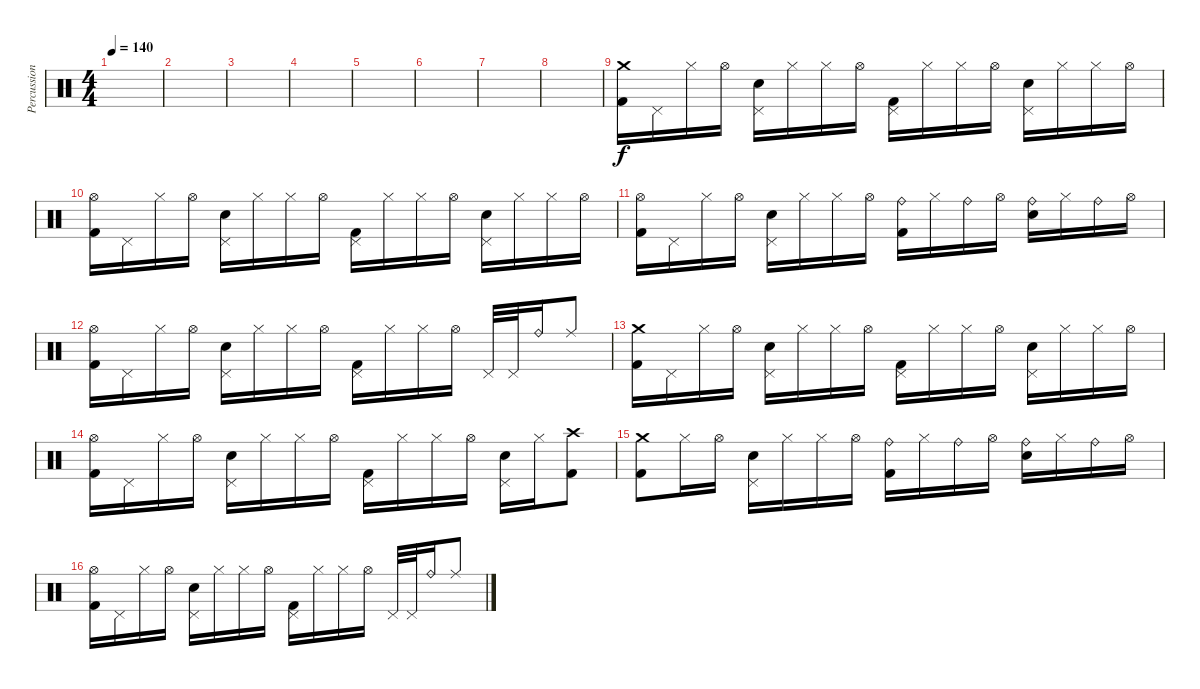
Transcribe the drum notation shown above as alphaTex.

\track ("Percussion" "Percussion") {instrument percussion}
\staff {score}
\articulation defaults
\ts (4 4)
\tempo 140
\clef neutral
\ks c
|
|
|
|
|
|
|
|
("Crash medium (hit)" "Kick (hit) 2").16 "Pedal Hi-Hat (hit)".16 "Hi-Hat (closed)".16 "Hi-Hat (open)".16 ("Pedal Hi-Hat (hit)" "Electric Snare (hit)").16 "Hi-Hat (closed)".16 "Hi-Hat (closed)".16 "Hi-Hat (open)".16 ("Pedal Hi-Hat (hit)" "Kick (hit) 2").16 "Hi-Hat (closed)".16 "Hi-Hat (closed)".16 "Hi-Hat (open)".16 ("Pedal Hi-Hat (hit)" "Electric Snare (hit)").16 "Hi-Hat (closed)".16 "Hi-Hat (closed)".16 "Hi-Hat (open)".16 |
("Hi-Hat (open)" "Kick (hit) 2").16 "Pedal Hi-Hat (hit)".16 "Hi-Hat (closed)".16 "Hi-Hat (open)".16 ("Pedal Hi-Hat (hit)" "Electric Snare (hit)").16 "Hi-Hat (closed)".16 "Hi-Hat (closed)".16 "Hi-Hat (open)".16 ("Pedal Hi-Hat (hit)" "Kick (hit) 2").16 "Hi-Hat (closed)".16 "Hi-Hat (closed)".16 "Hi-Hat (open)".16 ("Pedal Hi-Hat (hit)" "Electric Snare (hit)").16 "Hi-Hat (closed)".16 "Hi-Hat (closed)".16 "Hi-Hat (open)".16 |
("Hi-Hat (open)" "Kick (hit) 2").16 "Pedal Hi-Hat (hit)".16 "Hi-Hat (closed)".16 "Hi-Hat (open)".16 ("Pedal Hi-Hat (hit)" "Electric Snare (hit)").16 "Hi-Hat (closed)".16 "Hi-Hat (closed)".16 "Hi-Hat (open)".16 ("Ride (bell)" "Kick (hit) 2").16 "Hi-Hat (closed)".16 "Ride (bell)".16 "Hi-Hat (open)".16 ("Ride (bell)" "Electric Snare (hit)").16 "Hi-Hat (closed)".16 "Ride (bell)".16 "Hi-Hat (open)".16 |
("Hi-Hat (open)" "Kick (hit) 2").16 "Pedal Hi-Hat (hit)".16 "Hi-Hat (closed)".16 "Hi-Hat (open)".16 ("Pedal Hi-Hat (hit)" "Electric Snare (hit)").16 "Hi-Hat (closed)".16 "Hi-Hat (closed)".16 "Hi-Hat (open)".16 ("Pedal Hi-Hat (hit)" "Kick (hit) 2").16 "Hi-Hat (closed)".16 "Hi-Hat (closed)".16 "Hi-Hat (open)".16 "Pedal Hi-Hat (hit)".32 "Pedal Hi-Hat (hit)".32 "Ride (bell)".16 "Ride (middle)".8 |
("Crash medium (hit)" "Kick (hit) 2").16 "Pedal Hi-Hat (hit)".16 "Hi-Hat (closed)".16 "Hi-Hat (open)".16 ("Pedal Hi-Hat (hit)" "Electric Snare (hit)").16 "Hi-Hat (closed)".16 "Hi-Hat (closed)".16 "Hi-Hat (open)".16 ("Pedal Hi-Hat (hit)" "Kick (hit) 2").16 "Hi-Hat (closed)".16 "Hi-Hat (closed)".16 "Hi-Hat (open)".16 ("Pedal Hi-Hat (hit)" "Electric Snare (hit)").16 "Hi-Hat (closed)".16 "Hi-Hat (closed)".16 "Hi-Hat (open)".16 |
("Hi-Hat (open)" "Kick (hit) 2").16 "Pedal Hi-Hat (hit)".16 "Hi-Hat (closed)".16 "Hi-Hat (open)".16 ("Pedal Hi-Hat (hit)" "Electric Snare (hit)").16 "Hi-Hat (closed)".16 "Hi-Hat (closed)".16 "Hi-Hat (open)".16 ("Pedal Hi-Hat (hit)" "Kick (hit) 2").16 "Hi-Hat (closed)".16 "Hi-Hat (closed)".16 "Hi-Hat (open)".16 ("Pedal Hi-Hat (hit)" "Electric Snare (hit)").16 "Hi-Hat (closed)".16 ("Crash high (hit)" "Kick (hit) 2").8 |
("Crash medium (hit)" "Kick (hit) 2").8 "Hi-Hat (closed)".16 "Hi-Hat (open)".16 ("Pedal Hi-Hat (hit)" "Electric Snare (hit)").16 "Hi-Hat (closed)".16 "Hi-Hat (closed)".16 "Hi-Hat (open)".16 ("Ride (bell)" "Kick (hit) 2").16 "Hi-Hat (closed)".16 "Ride (bell)".16 "Hi-Hat (open)".16 ("Ride (bell)" "Electric Snare (hit)").16 "Hi-Hat (closed)".16 "Ride (bell)".16 "Hi-Hat (open)".16 |
("Hi-Hat (open)" "Kick (hit) 2").16 "Pedal Hi-Hat (hit)".16 "Hi-Hat (closed)".16 "Hi-Hat (open)".16 ("Pedal Hi-Hat (hit)" "Electric Snare (hit)").16 "Hi-Hat (closed)".16 "Hi-Hat (closed)".16 "Hi-Hat (open)".16 ("Pedal Hi-Hat (hit)" "Kick (hit) 2").16 "Hi-Hat (closed)".16 "Hi-Hat (closed)".16 "Hi-Hat (open)".16 "Pedal Hi-Hat (hit)".32 "Pedal Hi-Hat (hit)".32 "Ride (bell)".16 "Ride (middle)".8
